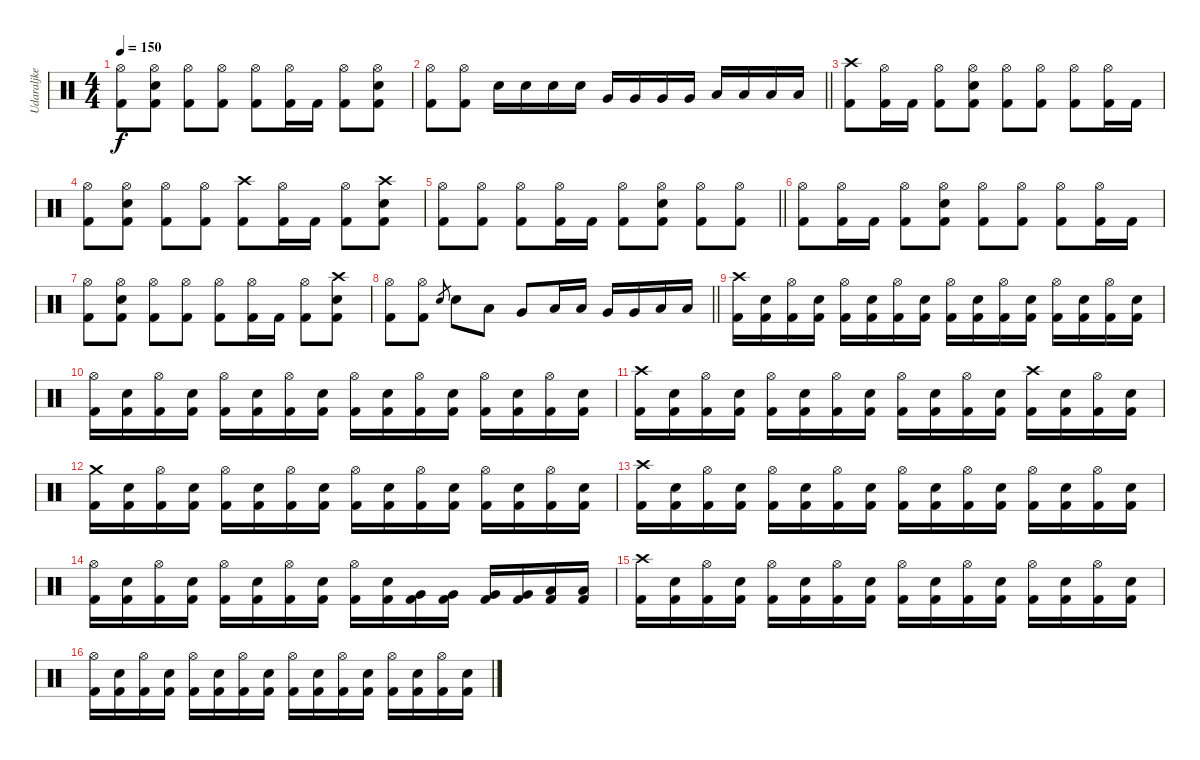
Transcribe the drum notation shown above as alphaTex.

\track ("Udaraljke" "Udaraljke") {instrument percussion}
\staff {score}
\articulation defaults
\ts (4 4)
\tempo 150
\clef neutral
\ks c
("Hi-Hat (open)" "Kick (hit) 2").8{dy f} ("Hi-Hat (open)" "Electric Snare (hit)" "Kick (hit) 2").8 ("Hi-Hat (open)" "Kick (hit) 2").8 ("Hi-Hat (open)" "Kick (hit) 2").8 ("Hi-Hat (open)" "Kick (hit) 2").8 ("Hi-Hat (open)" "Kick (hit) 2").16 "Kick (hit) 2".16 ("Hi-Hat (open)" "Kick (hit) 2").8 ("Hi-Hat (open)" "Electric Snare (hit)" "Kick (hit) 2").8 |
\barLineRight lightlight
("Hi-Hat (open)" "Kick (hit) 2").8 ("Hi-Hat (open)" "Kick (hit) 2").8 "Electric Snare (hit)".16 "Electric Snare (hit)".16 "Electric Snare (hit)".16 "Electric Snare (hit)".16 "Very Low Tom (hit)".16 "Very Low Tom (hit)".16 "Very Low Tom (hit)".16 "Very Low Tom (hit)".16 "Low Tom (hit)".16 "Low Tom (hit)".16 "Low Tom (hit)".16 "Low Tom (hit)".16 |
("Crash high (hit)" "Kick (hit) 2").8 ("Hi-Hat (open)" "Kick (hit) 2").16 "Kick (hit) 2".16 ("Hi-Hat (open)" "Kick (hit) 2").8 ("Hi-Hat (open)" "Electric Snare (hit)" "Kick (hit) 2").8 ("Hi-Hat (open)" "Kick (hit) 2").8 ("Hi-Hat (open)" "Kick (hit) 2").8 ("Hi-Hat (open)" "Kick (hit) 2").8 ("Hi-Hat (open)" "Kick (hit) 2").16 "Kick (hit) 2".16 |
("Hi-Hat (open)" "Kick (hit) 2").8 ("Hi-Hat (open)" "Electric Snare (hit)" "Kick (hit) 2").8 ("Hi-Hat (open)" "Kick (hit) 2").8 ("Hi-Hat (open)" "Kick (hit) 2").8 ("Crash high (hit)" "Kick (hit) 2").8 ("Hi-Hat (open)" "Kick (hit) 2").16 "Kick (hit) 2".16 ("Hi-Hat (open)" "Kick (hit) 2").8 ("Crash high (hit)" "Electric Snare (hit)" "Kick (hit) 2").8 |
\barLineRight lightlight
("Hi-Hat (open)" "Kick (hit) 2").8 ("Hi-Hat (open)" "Kick (hit) 2").8 ("Hi-Hat (open)" "Kick (hit) 2").8 ("Hi-Hat (open)" "Kick (hit) 2").16 "Kick (hit) 2".16 ("Hi-Hat (open)" "Kick (hit) 2").8 ("Hi-Hat (open)" "Electric Snare (hit)" "Kick (hit) 2").8 ("Hi-Hat (open)" "Kick (hit) 2").8 ("Hi-Hat (open)" "Kick (hit) 2").8 |
("Hi-Hat (open)" "Kick (hit) 2").8 ("Hi-Hat (open)" "Kick (hit) 2").16 "Kick (hit) 2".16 ("Hi-Hat (open)" "Kick (hit) 2").8 ("Hi-Hat (open)" "Electric Snare (hit)" "Kick (hit) 2").8 ("Hi-Hat (open)" "Kick (hit) 2").8 ("Hi-Hat (open)" "Kick (hit) 2").8 ("Hi-Hat (open)" "Kick (hit) 2").8 ("Hi-Hat (open)" "Kick (hit) 2").16 "Kick (hit) 2".16 |
("Hi-Hat (open)" "Kick (hit) 2").8 ("Hi-Hat (open)" "Electric Snare (hit)" "Kick (hit) 2").8 ("Hi-Hat (open)" "Kick (hit) 2").8 ("Hi-Hat (open)" "Kick (hit) 2").8 ("Hi-Hat (open)" "Kick (hit) 2").8 ("Hi-Hat (open)" "Kick (hit) 2").16 "Kick (hit) 2".16 ("Hi-Hat (open)" "Kick (hit) 2").8 ("Crash high (hit)" "Electric Snare (hit)" "Kick (hit) 2").8 |
\barLineRight lightlight
("Hi-Hat (open)" "Kick (hit) 2").8 ("Hi-Hat (open)" "Kick (hit) 2").8 "Electric Snare (hit)".8{gr} "Electric Snare (hit)".8 "Low Floor Tom (hit)".8 "Very Low Tom (hit)".8 "Low Floor Tom (hit)".16 "Low Floor Tom (hit)".16 "Very Low Tom (hit)".16 "Very Low Tom (hit)".16 "Low Tom (hit)".16 "Low Tom (hit)".16 |
\section ("" "")
("Crash high (hit)" "Kick (hit) 2").16 ("Electric Snare (hit)" "Kick (hit) 2").16 ("Hi-Hat (open)" "Kick (hit) 2").16 ("Electric Snare (hit)" "Kick (hit) 2").16 ("Hi-Hat (open)" "Kick (hit) 2").16 ("Electric Snare (hit)" "Kick (hit) 2").16 ("Hi-Hat (open)" "Kick (hit) 2").16 ("Electric Snare (hit)" "Kick (hit) 2").16 ("Hi-Hat (open)" "Kick (hit) 2").16 ("Electric Snare (hit)" "Kick (hit) 2").16 ("Hi-Hat (open)" "Kick (hit) 2").16 ("Electric Snare (hit)" "Kick (hit) 2").16 ("Hi-Hat (open)" "Kick (hit) 2").16 ("Electric Snare (hit)" "Kick (hit) 2").16 ("Hi-Hat (open)" "Kick (hit) 2").16 ("Electric Snare (hit)" "Kick (hit) 2").16 |
("Hi-Hat (open)" "Kick (hit) 2").16 ("Electric Snare (hit)" "Kick (hit) 2").16 ("Hi-Hat (open)" "Kick (hit) 2").16 ("Electric Snare (hit)" "Kick (hit) 2").16 ("Hi-Hat (open)" "Kick (hit) 2").16 ("Electric Snare (hit)" "Kick (hit) 2").16 ("Hi-Hat (open)" "Kick (hit) 2").16 ("Electric Snare (hit)" "Kick (hit) 2").16 ("Hi-Hat (open)" "Kick (hit) 2").16 ("Electric Snare (hit)" "Kick (hit) 2").16 ("Hi-Hat (open)" "Kick (hit) 2").16 ("Electric Snare (hit)" "Kick (hit) 2").16 ("Hi-Hat (open)" "Kick (hit) 2").16 ("Electric Snare (hit)" "Kick (hit) 2").16 ("Hi-Hat (open)" "Kick (hit) 2").16 ("Electric Snare (hit)" "Kick (hit) 2").16 |
("Crash high (hit)" "Kick (hit) 2").16 ("Electric Snare (hit)" "Kick (hit) 2").16 ("Hi-Hat (open)" "Kick (hit) 2").16 ("Electric Snare (hit)" "Kick (hit) 2").16 ("Hi-Hat (open)" "Kick (hit) 2").16 ("Electric Snare (hit)" "Kick (hit) 2").16 ("Hi-Hat (open)" "Kick (hit) 2").16 ("Electric Snare (hit)" "Kick (hit) 2").16 ("Hi-Hat (open)" "Kick (hit) 2").16 ("Electric Snare (hit)" "Kick (hit) 2").16 ("Hi-Hat (open)" "Kick (hit) 2").16 ("Electric Snare (hit)" "Kick (hit) 2").16 ("Crash high (hit)" "Kick (hit) 2").16 ("Electric Snare (hit)" "Kick (hit) 2").16 ("Hi-Hat (open)" "Kick (hit) 2").16 ("Electric Snare (hit)" "Kick (hit) 2").16 |
("Crash medium (hit)" "Kick (hit) 2").16 ("Electric Snare (hit)" "Kick (hit) 2").16 ("Hi-Hat (open)" "Kick (hit) 2").16 ("Electric Snare (hit)" "Kick (hit) 2").16 ("Hi-Hat (open)" "Kick (hit) 2").16 ("Electric Snare (hit)" "Kick (hit) 2").16 ("Hi-Hat (open)" "Kick (hit) 2").16 ("Electric Snare (hit)" "Kick (hit) 2").16 ("Hi-Hat (open)" "Kick (hit) 2").16 ("Electric Snare (hit)" "Kick (hit) 2").16 ("Hi-Hat (open)" "Kick (hit) 2").16 ("Electric Snare (hit)" "Kick (hit) 2").16 ("Hi-Hat (open)" "Kick (hit) 2").16 ("Electric Snare (hit)" "Kick (hit) 2").16 ("Hi-Hat (open)" "Kick (hit) 2").16 ("Electric Snare (hit)" "Kick (hit) 2").16 |
("Crash high (hit)" "Kick (hit) 2").16 ("Electric Snare (hit)" "Kick (hit) 2").16 ("Hi-Hat (open)" "Kick (hit) 2").16 ("Electric Snare (hit)" "Kick (hit) 2").16 ("Hi-Hat (open)" "Kick (hit) 2").16 ("Electric Snare (hit)" "Kick (hit) 2").16 ("Hi-Hat (open)" "Kick (hit) 2").16 ("Electric Snare (hit)" "Kick (hit) 2").16 ("Hi-Hat (open)" "Kick (hit) 2").16 ("Electric Snare (hit)" "Kick (hit) 2").16 ("Hi-Hat (open)" "Kick (hit) 2").16 ("Electric Snare (hit)" "Kick (hit) 2").16 ("Hi-Hat (open)" "Kick (hit) 2").16 ("Electric Snare (hit)" "Kick (hit) 2").16 ("Hi-Hat (open)" "Kick (hit) 2").16 ("Electric Snare (hit)" "Kick (hit) 2").16 |
("Hi-Hat (open)" "Kick (hit) 2").16 ("Electric Snare (hit)" "Kick (hit) 2").16 ("Hi-Hat (open)" "Kick (hit) 2").16 ("Electric Snare (hit)" "Kick (hit) 2").16 ("Hi-Hat (open)" "Kick (hit) 2").16 ("Electric Snare (hit)" "Kick (hit) 2").16 ("Hi-Hat (open)" "Kick (hit) 2").16 ("Electric Snare (hit)" "Kick (hit) 2").16 ("Hi-Hat (open)" "Kick (hit) 2").16 ("Electric Snare (hit)" "Kick (hit) 2").16 ("Very Low Tom (hit)" "Kick (hit) 2").16 ("Very Low Tom (hit)" "Kick (hit) 2").16 ("Very Low Tom (hit)" "Kick (hit) 2").16 ("Very Low Tom (hit)" "Kick (hit) 2").16 ("Low Floor Tom (hit)" "Kick (hit) 2").16 ("Low Floor Tom (hit)" "Kick (hit) 2").16 |
("Crash high (hit)" "Kick (hit) 2").16 ("Electric Snare (hit)" "Kick (hit) 2").16 ("Hi-Hat (open)" "Kick (hit) 2").16 ("Electric Snare (hit)" "Kick (hit) 2").16 ("Hi-Hat (open)" "Kick (hit) 2").16 ("Electric Snare (hit)" "Kick (hit) 2").16 ("Hi-Hat (open)" "Kick (hit) 2").16 ("Electric Snare (hit)" "Kick (hit) 2").16 ("Hi-Hat (open)" "Kick (hit) 2").16 ("Electric Snare (hit)" "Kick (hit) 2").16 ("Hi-Hat (open)" "Kick (hit) 2").16 ("Electric Snare (hit)" "Kick (hit) 2").16 ("Hi-Hat (open)" "Kick (hit) 2").16 ("Electric Snare (hit)" "Kick (hit) 2").16 ("Hi-Hat (open)" "Kick (hit) 2").16 ("Electric Snare (hit)" "Kick (hit) 2").16 |
("Hi-Hat (open)" "Kick (hit) 2").16 ("Electric Snare (hit)" "Kick (hit) 2").16 ("Hi-Hat (open)" "Kick (hit) 2").16 ("Electric Snare (hit)" "Kick (hit) 2").16 ("Hi-Hat (open)" "Kick (hit) 2").16 ("Electric Snare (hit)" "Kick (hit) 2").16 ("Hi-Hat (open)" "Kick (hit) 2").16 ("Electric Snare (hit)" "Kick (hit) 2").16 ("Hi-Hat (open)" "Kick (hit) 2").16 ("Electric Snare (hit)" "Kick (hit) 2").16 ("Hi-Hat (open)" "Kick (hit) 2").16 ("Electric Snare (hit)" "Kick (hit) 2").16 ("Hi-Hat (open)" "Kick (hit) 2").16 ("Electric Snare (hit)" "Kick (hit) 2").16 ("Hi-Hat (open)" "Kick (hit) 2").16 ("Electric Snare (hit)" "Kick (hit) 2").16
